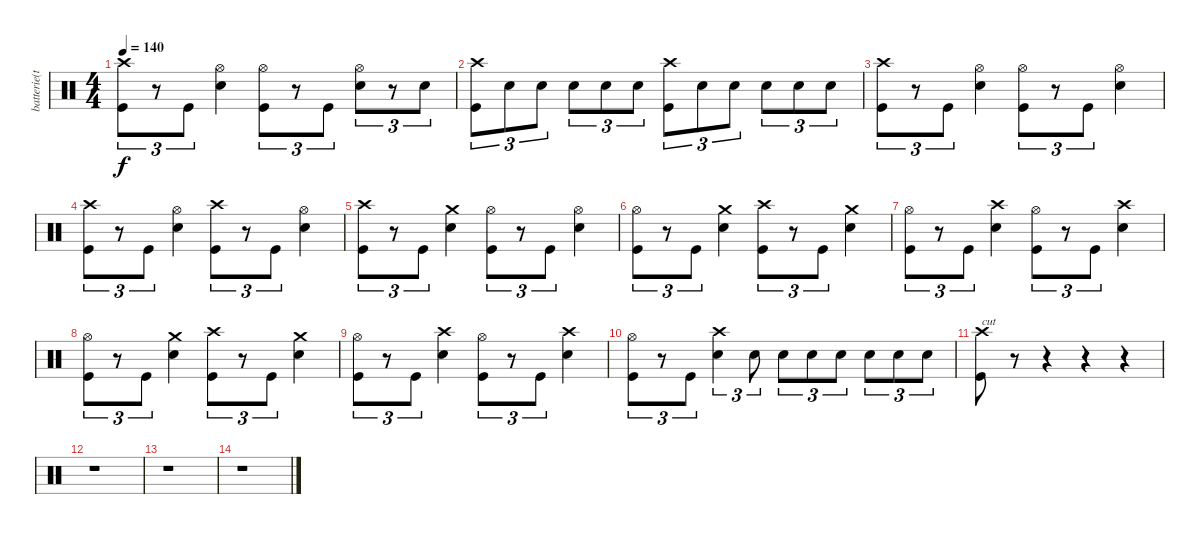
\track ("batterie(tré)" "batterie(t") {instrument percussion}
\staff {score}
\articulation defaults
\ts (4 4)
\tempo 140
\clef neutral
\ks c
("Crash high (hit)" "Kick (hit)").8{tu (3 2) dy f} r.8{tu (3 2)} "Kick (hit)".8{tu (3 2)} ("Hi-Hat (open)" "Electric Snare (hit)").4 ("Hi-Hat (open)" "Kick (hit)").8{tu (3 2)} r.8{tu (3 2)} "Kick (hit)".8{tu (3 2)} ("Hi-Hat (open)" "Electric Snare (hit)").8{tu (3 2)} r.8{tu (3 2)} "Electric Snare (hit)".8{tu (3 2)} |
("Crash high (hit)" "Kick (hit)").8{tu (3 2)} "Electric Snare (hit)".8{tu (3 2)} "Electric Snare (hit)".8{tu (3 2)} "Electric Snare (hit)".8{tu (3 2)} "Electric Snare (hit)".8{tu (3 2)} "Electric Snare (hit)".8{tu (3 2)} ("Crash high (hit)" "Kick (hit)").8{tu (3 2)} "Electric Snare (hit)".8{tu (3 2)} "Electric Snare (hit)".8{tu (3 2)} "Electric Snare (hit)".8{tu (3 2)} "Electric Snare (hit)".8{tu (3 2)} "Electric Snare (hit)".8{tu (3 2)} |
("Crash high (hit)" "Kick (hit)").8{tu (3 2)} r.8{tu (3 2)} "Kick (hit)".8{tu (3 2)} ("Hi-Hat (open)" "Electric Snare (hit)").4 ("Hi-Hat (open)" "Kick (hit)").8{tu (3 2)} r.8{tu (3 2)} "Kick (hit)".8{tu (3 2)} ("Hi-Hat (open)" "Electric Snare (hit)").4 |
("Crash high (hit)" "Kick (hit)").8{tu (3 2)} r.8{tu (3 2)} "Kick (hit)".8{tu (3 2)} ("Hi-Hat (open)" "Electric Snare (hit)").4 ("Crash high (hit)" "Kick (hit)").8{tu (3 2)} r.8{tu (3 2)} "Kick (hit)".8{tu (3 2)} ("Hi-Hat (open)" "Electric Snare (hit)").4 |
("Crash high (hit)" "Kick (hit)").8{tu (3 2)} r.8{tu (3 2)} "Kick (hit)".8{tu (3 2)} ("Crash medium (hit)" "Electric Snare (hit)").4 ("Hi-Hat (open)" "Kick (hit)").8{tu (3 2)} r.8{tu (3 2)} "Kick (hit)".8{tu (3 2)} ("Hi-Hat (open)" "Electric Snare (hit)").4 |
("Hi-Hat (open)" "Kick (hit)").8{tu (3 2)} r.8{tu (3 2)} "Kick (hit)".8{tu (3 2)} ("Crash medium (hit)" "Electric Snare (hit)").4 ("Crash high (hit)" "Kick (hit)").8{tu (3 2)} r.8{tu (3 2)} "Kick (hit)".8{tu (3 2)} ("Crash medium (hit)" "Electric Snare (hit)").4 |
("Hi-Hat (open)" "Kick (hit)").8{tu (3 2)} r.8{tu (3 2)} "Kick (hit)".8{tu (3 2)} ("Crash high (hit)" "Electric Snare (hit)").4 ("Hi-Hat (open)" "Kick (hit)").8{tu (3 2)} r.8{tu (3 2)} "Kick (hit)".8{tu (3 2)} ("Crash high (hit)" "Electric Snare (hit)").4 |
("Hi-Hat (open)" "Kick (hit)").8{tu (3 2)} r.8{tu (3 2)} "Kick (hit)".8{tu (3 2)} ("Crash medium (hit)" "Electric Snare (hit)").4 ("Crash high (hit)" "Kick (hit)").8{tu (3 2)} r.8{tu (3 2)} "Kick (hit)".8{tu (3 2)} ("Crash medium (hit)" "Electric Snare (hit)").4 |
("Hi-Hat (open)" "Kick (hit)").8{tu (3 2)} r.8{tu (3 2)} "Kick (hit)".8{tu (3 2)} ("Crash high (hit)" "Electric Snare (hit)").4 ("Hi-Hat (open)" "Kick (hit)").8{tu (3 2)} r.8{tu (3 2)} "Kick (hit)".8{tu (3 2)} ("Crash high (hit)" "Electric Snare (hit)").4 |
("Hi-Hat (open)" "Kick (hit)").8{tu (3 2)} r.8{tu (3 2)} "Kick (hit)".8{tu (3 2)} ("Crash high (hit)" "Electric Snare (hit)").4{tu (3 2)} "Electric Snare (hit)".8{tu (3 2)} "Electric Snare (hit)".8{tu (3 2)} "Electric Snare (hit)".8{tu (3 2)} "Electric Snare (hit)".8{tu (3 2)} "Electric Snare (hit)".8{tu (3 2)} "Electric Snare (hit)".8{tu (3 2)} "Electric Snare (hit)".8{tu (3 2)} |
("Crash high (hit)" "Kick (hit)").8{txt "cut"} r.8 r.4 r.4 r.4 |
r.1 |
r.1 |
r.1
